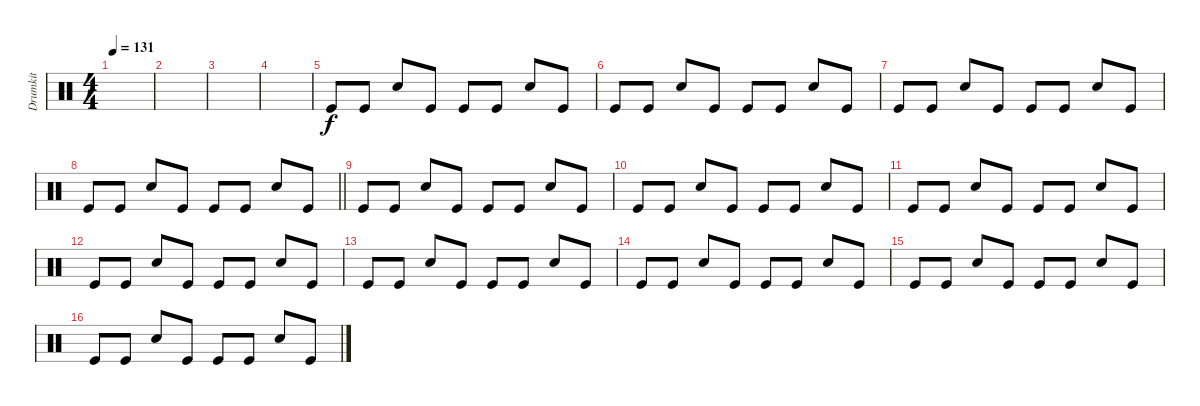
\track ("Drumkit" "Drumkit") {instrument percussion}
\staff {score}
\articulation defaults
\ts (4 4)
\tempo 131
\clef neutral
\ks c
|
|
|
|
"Kick (hit)".8 "Kick (hit)".8 "Snare (hit) 2".8 "Kick (hit)".8 "Kick (hit)".8 "Kick (hit)".8 "Snare (hit) 2".8 "Kick (hit)".8 |
"Kick (hit)".8 "Kick (hit)".8 "Snare (hit) 2".8 "Kick (hit)".8 "Kick (hit)".8 "Kick (hit)".8 "Snare (hit) 2".8 "Kick (hit)".8 |
"Kick (hit)".8 "Kick (hit)".8 "Snare (hit) 2".8 "Kick (hit)".8 "Kick (hit)".8 "Kick (hit)".8 "Snare (hit) 2".8 "Kick (hit)".8 |
\barLineRight lightlight "Kick (hit)".8 "Kick (hit)".8 "Snare (hit) 2".8 "Kick (hit)".8 "Kick (hit)".8 "Kick (hit)".8 "Snare (hit) 2".8 "Kick (hit)".8
|
"Kick (hit)".8 "Kick (hit)".8 "Snare (hit) 2".8 "Kick (hit)".8 "Kick (hit)".8 "Kick (hit)".8 "Snare (hit) 2".8 "Kick (hit)".8 |
"Kick (hit)".8 "Kick (hit)".8 "Snare (hit) 2".8 "Kick (hit)".8 "Kick (hit)".8 "Kick (hit)".8 "Snare (hit) 2".8 "Kick (hit)".8 |
"Kick (hit)".8 "Kick (hit)".8 "Snare (hit) 2".8 "Kick (hit)".8 "Kick (hit)".8 "Kick (hit)".8 "Snare (hit) 2".8 "Kick (hit)".8 |
"Kick (hit)".8 "Kick (hit)".8 "Snare (hit) 2".8 "Kick (hit)".8 "Kick (hit)".8 "Kick (hit)".8 "Snare (hit) 2".8 "Kick (hit)".8 |
"Kick (hit)".8 "Kick (hit)".8 "Snare (hit) 2".8 "Kick (hit)".8 "Kick (hit)".8 "Kick (hit)".8 "Snare (hit) 2".8 "Kick (hit)".8 |
"Kick (hit)".8 "Kick (hit)".8 "Snare (hit) 2".8 "Kick (hit)".8 "Kick (hit)".8 "Kick (hit)".8 "Snare (hit) 2".8 "Kick (hit)".8 |
"Kick (hit)".8 "Kick (hit)".8 "Snare (hit) 2".8 "Kick (hit)".8 "Kick (hit)".8 "Kick (hit)".8 "Snare (hit) 2".8 "Kick (hit)".8 |
"Kick (hit)".8 "Kick (hit)".8 "Snare (hit) 2".8 "Kick (hit)".8 "Kick (hit)".8 "Kick (hit)".8 "Snare (hit) 2".8 "Kick (hit)".8
